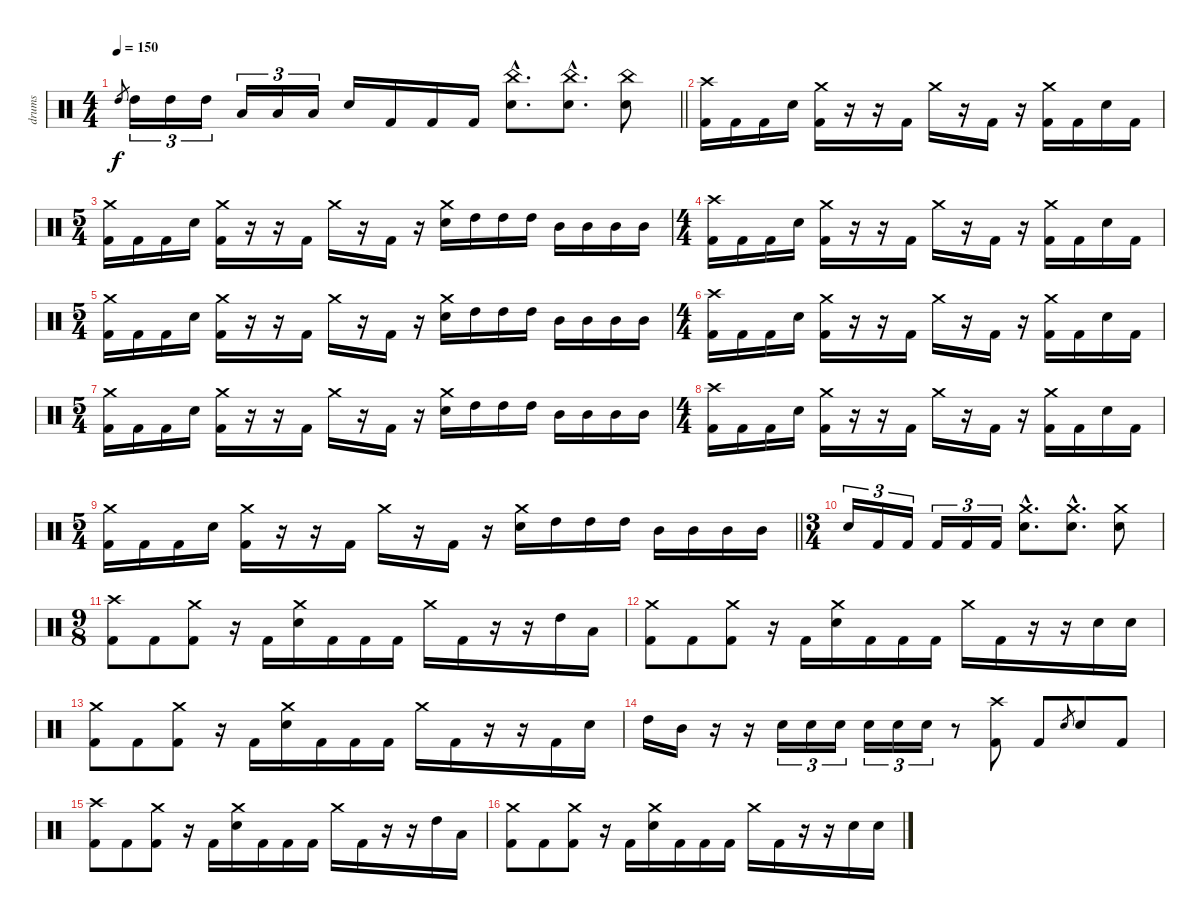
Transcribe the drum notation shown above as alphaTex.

\track ("drums" "drums") {instrument percussion}
\staff {score}
\articulation defaults
\ts (4 4)
\tempo 150
\clef neutral
\barLineRight lightlight
\ks c "High Tom (hit)".8{gr dy f} "High Tom (hit)".16{tu (3 2)} "High Tom (hit)".16{tu (3 2)} "High Tom (hit)".16{tu (3 2)} "Low Tom (hit)".16{tu (3 2)} "Low Tom (hit)".16{tu (3 2)} "Low Tom (hit)".16{tu (3 2)} "Electric Snare (hit)".16 "Kick (hit) 2".16 "Kick (hit) 2".16 "Kick (hit) 2".16
("China (hit)"{hac} "Electric Snare (hit)"{hac}).8{d} ("China (hit)"{hac} "Electric Snare (hit)"{hac}).8{d} ("China (hit)" "Electric Snare (hit)").8 |
\section ("" "")
("Crash high (hit)" "Kick (hit) 2").16 "Kick (hit) 2".16 "Kick (hit) 2".16 "Electric Snare (hit)".16 ("Crash medium (hit)" "Kick (hit) 2").16 r.16 r.16 "Kick (hit) 2".16 "Crash medium (hit)".16 r.16 "Kick (hit) 2".16 r.16 ("Crash medium (hit)" "Kick (hit) 2").16 "Kick (hit) 2".16 "Electric Snare (hit)".16 "Kick (hit) 2".16 |
\ts (5 4)
("Crash medium (hit)" "Kick (hit) 2").16 "Kick (hit) 2".16 "Kick (hit) 2".16 "Electric Snare (hit)".16 ("Crash medium (hit)" "Kick (hit) 2").16 r.16 r.16 "Kick (hit) 2".16 "Crash medium (hit)".16 r.16 "Kick (hit) 2".16 r.16 ("Crash medium (hit)" "Electric Snare (hit)").16 "High Tom (hit)".16 "High Tom (hit)".16 "High Tom (hit)".16 "Mid Tom (hit)".16 "Mid Tom (hit)".16 "Mid Tom (hit)".16 "Mid Tom (hit)".16 |
\ts (4 4)
("Crash high (hit)" "Kick (hit) 2").16 "Kick (hit) 2".16 "Kick (hit) 2".16 "Electric Snare (hit)".16 ("Crash medium (hit)" "Kick (hit) 2").16 r.16 r.16 "Kick (hit) 2".16 "Crash medium (hit)".16 r.16 "Kick (hit) 2".16 r.16 ("Crash medium (hit)" "Kick (hit) 2").16 "Kick (hit) 2".16 "Electric Snare (hit)".16 "Kick (hit) 2".16 |
\ts (5 4)
("Crash medium (hit)" "Kick (hit) 2").16 "Kick (hit) 2".16 "Kick (hit) 2".16 "Electric Snare (hit)".16 ("Crash medium (hit)" "Kick (hit) 2").16 r.16 r.16 "Kick (hit) 2".16 "Crash medium (hit)".16 r.16 "Kick (hit) 2".16 r.16 ("Crash medium (hit)" "Electric Snare (hit)").16 "High Tom (hit)".16 "High Tom (hit)".16 "High Tom (hit)".16 "Mid Tom (hit)".16 "Mid Tom (hit)".16 "Mid Tom (hit)".16 "Mid Tom (hit)".16 |
\ts (4 4)
("Crash high (hit)" "Kick (hit) 2").16 "Kick (hit) 2".16 "Kick (hit) 2".16 "Electric Snare (hit)".16 ("Crash medium (hit)" "Kick (hit) 2").16 r.16 r.16 "Kick (hit) 2".16 "Crash medium (hit)".16 r.16 "Kick (hit) 2".16 r.16 ("Crash medium (hit)" "Kick (hit) 2").16 "Kick (hit) 2".16 "Electric Snare (hit)".16 "Kick (hit) 2".16 |
\ts (5 4)
("Crash medium (hit)" "Kick (hit) 2").16 "Kick (hit) 2".16 "Kick (hit) 2".16 "Electric Snare (hit)".16 ("Crash medium (hit)" "Kick (hit) 2").16 r.16 r.16 "Kick (hit) 2".16 "Crash medium (hit)".16 r.16 "Kick (hit) 2".16 r.16 ("Crash medium (hit)" "Electric Snare (hit)").16 "High Tom (hit)".16 "High Tom (hit)".16 "High Tom (hit)".16 "Mid Tom (hit)".16 "Mid Tom (hit)".16 "Mid Tom (hit)".16 "Mid Tom (hit)".16 |
\ts (4 4)
("Crash high (hit)" "Kick (hit) 2").16 "Kick (hit) 2".16 "Kick (hit) 2".16 "Electric Snare (hit)".16 ("Crash medium (hit)" "Kick (hit) 2").16 r.16 r.16 "Kick (hit) 2".16 "Crash medium (hit)".16 r.16 "Kick (hit) 2".16 r.16 ("Crash medium (hit)" "Kick (hit) 2").16 "Kick (hit) 2".16 "Electric Snare (hit)".16 "Kick (hit) 2".16 |
\ts (5 4)
\barLineRight lightlight
("Crash medium (hit)" "Kick (hit) 2").16 "Kick (hit) 2".16 "Kick (hit) 2".16 "Electric Snare (hit)".16 ("Crash medium (hit)" "Kick (hit) 2").16 r.16 r.16 "Kick (hit) 2".16 "Crash medium (hit)".16 r.16 "Kick (hit) 2".16 r.16 ("Crash medium (hit)" "Electric Snare (hit)").16 "High Tom (hit)".16 "High Tom (hit)".16 "High Tom (hit)".16 "Mid Tom (hit)".16 "Mid Tom (hit)".16 "Mid Tom (hit)".16 "Mid Tom (hit)".16 |
\ts (3 4)
\section ("" "")
"Electric Snare (hit)".16{tu (3 2)} "Kick (hit) 2".16{tu (3 2)} "Kick (hit) 2".16{tu (3 2)} "Kick (hit) 2".16{tu (3 2)} "Kick (hit) 2".16{tu (3 2)} "Kick (hit) 2".16{tu (3 2)} ("Crash medium (hit)"{hac} "Electric Snare (hit)"{hac}).8{d} ("Crash medium (hit)"{hac} "Electric Snare (hit)"{hac}).8{d} ("Crash medium (hit)" "Electric Snare (hit)").8 |
\ts (9 8)
\section ("" "")
("Crash high (hit)" "Kick (hit) 2").8 "Kick (hit) 2".8 ("Crash medium (hit)" "Kick (hit) 2").8 r.16 "Kick (hit) 2".16 ("Crash medium (hit)" "Electric Snare (hit)").16 "Kick (hit) 2".16 "Kick (hit) 2".16 "Kick (hit) 2".16 "Crash medium (hit)".16 "Kick (hit) 2".16 r.16 r.16 "High Tom (hit)".16 "Low Tom (hit)".16 |
("Crash medium (hit)" "Kick (hit) 2").8 "Kick (hit) 2".8 ("Crash medium (hit)" "Kick (hit) 2").8 r.16 "Kick (hit) 2".16 ("Crash medium (hit)" "Electric Snare (hit)").16 "Kick (hit) 2".16 "Kick (hit) 2".16 "Kick (hit) 2".16 "Crash medium (hit)".16 "Kick (hit) 2".16 r.16 r.16 "Electric Snare (hit)".16 "Electric Snare (hit)".16 |
("Crash medium (hit)" "Kick (hit) 2").8 "Kick (hit) 2".8 ("Crash medium (hit)" "Kick (hit) 2").8 r.16 "Kick (hit) 2".16 ("Crash medium (hit)" "Electric Snare (hit)").16 "Kick (hit) 2".16 "Kick (hit) 2".16 "Kick (hit) 2".16 "Crash medium (hit)".16 "Kick (hit) 2".16 r.16 r.16 "Kick (hit) 2".16 "Electric Snare (hit)".16 |
"High Tom (hit)".16 "Mid Tom (hit)".16 r.16 r.16 "Electric Snare (hit)".16{tu (3 2)} "Electric Snare (hit)".16{tu (3 2)} "Electric Snare (hit)".16{tu (3 2)} "Electric Snare (hit)".16{tu (3 2)} "Electric Snare (hit)".16{tu (3 2)} "Electric Snare (hit)".16{tu (3 2)} r.8 ("Crash high (hit)" "Kick (hit) 2").8 "Kick (hit) 2".8 "Electric Snare (hit)".8{gr} "Electric Snare (hit)".8 "Kick (hit) 2".8 |
("Crash high (hit)" "Kick (hit) 2").8 "Kick (hit) 2".8 ("Crash medium (hit)" "Kick (hit) 2").8 r.16 "Kick (hit) 2".16 ("Crash medium (hit)" "Electric Snare (hit)").16 "Kick (hit) 2".16 "Kick (hit) 2".16 "Kick (hit) 2".16 "Crash medium (hit)".16 "Kick (hit) 2".16 r.16 r.16 "High Tom (hit)".16 "Low Tom (hit)".16 |
("Crash medium (hit)" "Kick (hit) 2").8 "Kick (hit) 2".8 ("Crash medium (hit)" "Kick (hit) 2").8 r.16 "Kick (hit) 2".16 ("Crash medium (hit)" "Electric Snare (hit)").16 "Kick (hit) 2".16 "Kick (hit) 2".16 "Kick (hit) 2".16 "Crash medium (hit)".16 "Kick (hit) 2".16 r.16 r.16 "Electric Snare (hit)".16 "Electric Snare (hit)".16
